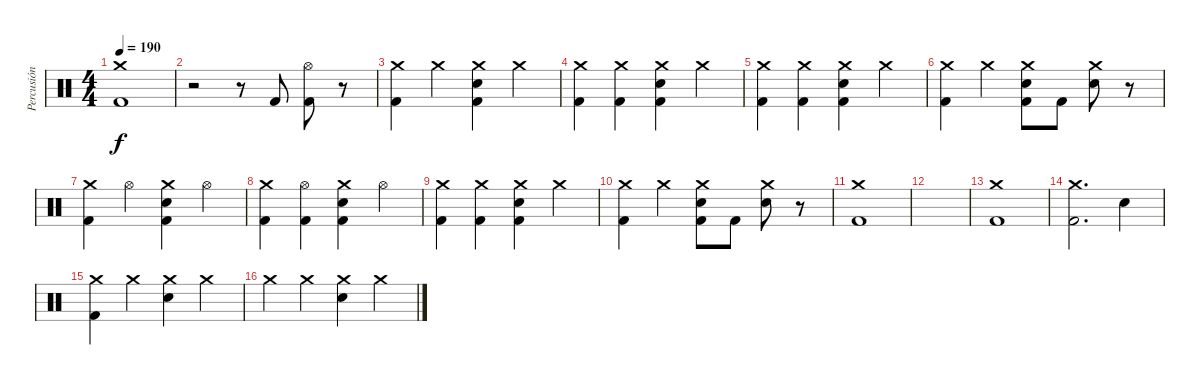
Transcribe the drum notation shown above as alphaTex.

\track ("Percusión" "Percusión") {instrument percussion}
\staff {score}
\articulation defaults
\ts (4 4)
\tempo 190
\clef neutral
\ks c
("Crash medium (hit)" "Kick (hit) 2").1{dy f} |
r.2 r.8 "Kick (hit) 2".8 ("Hi-Hat (open)" "Kick (hit) 2").8 r.8 |
("Crash medium (hit)" "Kick (hit) 2").4 "Crash medium (hit)".4 ("Crash medium (hit)" "Electric Snare (hit)" "Kick (hit) 2").4 "Crash medium (hit)".4 |
("Crash medium (hit)" "Kick (hit) 2").4 ("Crash medium (hit)" "Kick (hit) 2").4 ("Crash medium (hit)" "Electric Snare (hit)" "Kick (hit) 2").4 "Crash medium (hit)".4 |
("Crash medium (hit)" "Kick (hit) 2").4 ("Crash medium (hit)" "Kick (hit) 2").4 ("Crash medium (hit)" "Electric Snare (hit)" "Kick (hit) 2").4 "Crash medium (hit)".4 |
("Crash medium (hit)" "Kick (hit) 2").4 "Crash medium (hit)".4 ("Crash medium (hit)" "Electric Snare (hit)" "Kick (hit) 2").8 "Kick (hit) 2".8 ("Crash medium (hit)" "Electric Snare (hit)").8 r.8 |
("Crash medium (hit)" "Kick (hit) 2").4 "Hi-Hat (open)".4 ("Crash medium (hit)" "Electric Snare (hit)" "Kick (hit) 2").4 "Hi-Hat (open)".4 |
("Crash medium (hit)" "Kick (hit) 2").4 ("Hi-Hat (open)" "Kick (hit) 2").4 ("Crash medium (hit)" "Electric Snare (hit)" "Kick (hit) 2").4 "Hi-Hat (open)".4 |
("Crash medium (hit)" "Kick (hit) 2").4 ("Crash medium (hit)" "Kick (hit) 2").4 ("Crash medium (hit)" "Electric Snare (hit)" "Kick (hit) 2").4 "Crash medium (hit)".4 |
("Crash medium (hit)" "Kick (hit) 2").4 "Crash medium (hit)".4 ("Crash medium (hit)" "Electric Snare (hit)" "Kick (hit) 2").8 "Kick (hit) 2".8 ("Crash medium (hit)" "Electric Snare (hit)").8 r.8 |
("Crash medium (hit)" "Kick (hit) 2").1 |
|
("Crash medium (hit)" "Kick (hit) 2").1 |
("Crash medium (hit)" "Kick (hit) 2").2{d} "Electric Snare (hit)".4 |
("Crash medium (hit)" "Kick (hit) 2").4 "Crash medium (hit)".4 ("Crash medium (hit)" "Electric Snare (hit)").4 "Crash medium (hit)".4 |
"Crash medium (hit)".4 "Crash medium (hit)".4 ("Crash medium (hit)" "Electric Snare (hit)").4 "Crash medium (hit)".4
